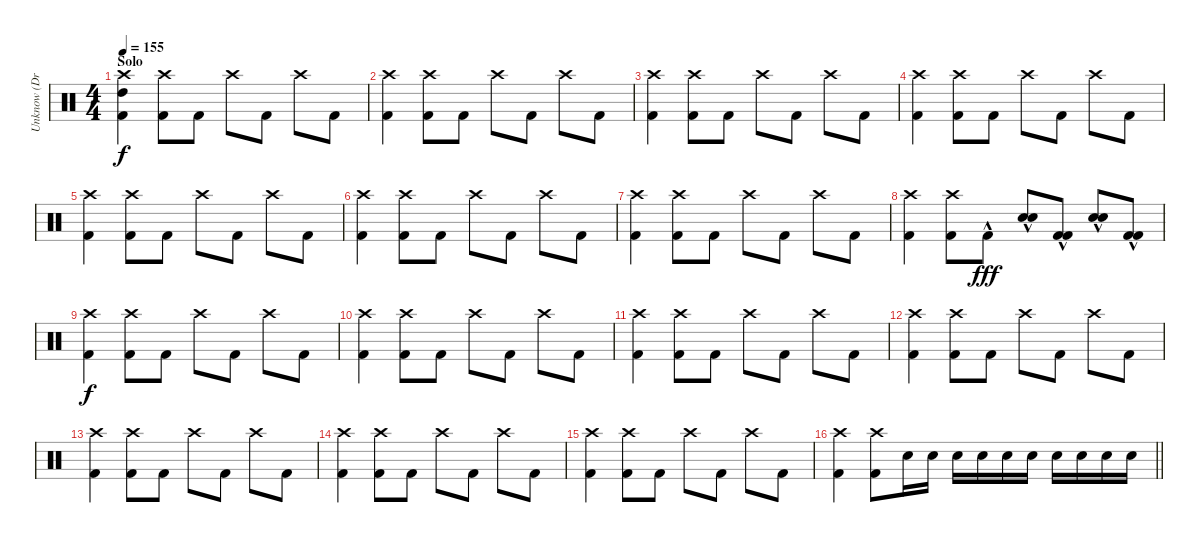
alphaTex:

\track ("Unknow (Drumer)" "Unknow (Dr") {instrument percussion}
\staff {score}
\articulation defaults
\ts (4 4)
\section ("" "Solo")
\tempo 155
\clef neutral
\ks c
("Crash high (hit)" "High Tom (hit)" "Kick (hit) 2").4{dy f volume 10} ("Crash high (hit)" "Kick (hit) 2").8 "Kick (hit) 2".8 "Crash high (hit)".8 "Kick (hit) 2".8 "Crash high (hit)".8 "Kick (hit) 2".8 |
("Crash high (hit)" "Kick (hit) 2").4 ("Crash high (hit)" "Kick (hit) 2").8 "Kick (hit) 2".8 "Crash high (hit)".8 "Kick (hit) 2".8 "Crash high (hit)".8 "Kick (hit) 2".8 |
("Crash high (hit)" "Kick (hit) 2").4 ("Crash high (hit)" "Kick (hit) 2").8 "Kick (hit) 2".8 "Crash high (hit)".8 "Kick (hit) 2".8 "Crash high (hit)".8 "Kick (hit) 2".8 |
("Crash high (hit)" "Kick (hit) 2").4 ("Crash high (hit)" "Kick (hit) 2").8 "Kick (hit) 2".8 "Crash high (hit)".8 "Kick (hit) 2".8 "Crash high (hit)".8 "Kick (hit) 2".8 |
("Crash high (hit)" "Kick (hit) 2").4 ("Crash high (hit)" "Kick (hit) 2").8 "Kick (hit) 2".8 "Crash high (hit)".8 "Kick (hit) 2".8 "Crash high (hit)".8 "Kick (hit) 2".8 |
("Crash high (hit)" "Kick (hit) 2").4 ("Crash high (hit)" "Kick (hit) 2").8 "Kick (hit) 2".8 "Crash high (hit)".8 "Kick (hit) 2".8 "Crash high (hit)".8 "Kick (hit) 2".8 |
("Crash high (hit)" "Kick (hit) 2").4 ("Crash high (hit)" "Kick (hit) 2").8 "Kick (hit) 2".8 "Crash high (hit)".8 "Kick (hit) 2".8 "Crash high (hit)".8 "Kick (hit) 2".8 |
("Crash high (hit)" "Kick (hit) 2").4 ("Crash high (hit)" "Kick (hit) 2").8 "Kick (hit) 2"{hac}.8{dy fff} ("Electric Snare (hit)"{hac} "Electric Snare (hit)").8 ("Kick (hit) 2" "Kick (hit) 2"{hac}).8 ("Electric Snare (hit)"{hac} "Electric Snare (hit)").8 ("Kick (hit) 2" "Kick (hit) 2"{hac}).8 |
("Crash high (hit)" "Kick (hit) 2").4{dy f} ("Crash high (hit)" "Kick (hit) 2").8 "Kick (hit) 2".8 "Crash high (hit)".8 "Kick (hit) 2".8 "Crash high (hit)".8 "Kick (hit) 2".8 |
("Crash high (hit)" "Kick (hit) 2").4 ("Crash high (hit)" "Kick (hit) 2").8 "Kick (hit) 2".8 "Crash high (hit)".8 "Kick (hit) 2".8 "Crash high (hit)".8 "Kick (hit) 2".8 |
("Crash high (hit)" "Kick (hit) 2").4 ("Crash high (hit)" "Kick (hit) 2").8 "Kick (hit) 2".8 "Crash high (hit)".8 "Kick (hit) 2".8 "Crash high (hit)".8 "Kick (hit) 2".8 |
("Crash high (hit)" "Kick (hit) 2").4 ("Crash high (hit)" "Kick (hit) 2").8 "Kick (hit) 2".8 "Crash high (hit)".8 "Kick (hit) 2".8 "Crash high (hit)".8 "Kick (hit) 2".8 |
("Crash high (hit)" "Kick (hit) 2").4 ("Crash high (hit)" "Kick (hit) 2").8 "Kick (hit) 2".8 "Crash high (hit)".8 "Kick (hit) 2".8 "Crash high (hit)".8 "Kick (hit) 2".8 |
("Crash high (hit)" "Kick (hit) 2").4 ("Crash high (hit)" "Kick (hit) 2").8 "Kick (hit) 2".8 "Crash high (hit)".8 "Kick (hit) 2".8 "Crash high (hit)".8 "Kick (hit) 2".8 |
("Crash high (hit)" "Kick (hit) 2").4 ("Crash high (hit)" "Kick (hit) 2").8 "Kick (hit) 2".8 "Crash high (hit)".8 "Kick (hit) 2".8 "Crash high (hit)".8 "Kick (hit) 2".8 |
\barLineRight lightlight
("Crash high (hit)" "Kick (hit) 2").4 ("Crash high (hit)" "Kick (hit) 2").8 "Electric Snare (hit)".16{volume 16} "Electric Snare (hit)".16 "Electric Snare (hit)".16 "Electric Snare (hit)".16 "Electric Snare (hit)".16 "Electric Snare (hit)".16 "Electric Snare (hit)".16 "Electric Snare (hit)".16 "Electric Snare (hit)".16 "Electric Snare (hit)".16
